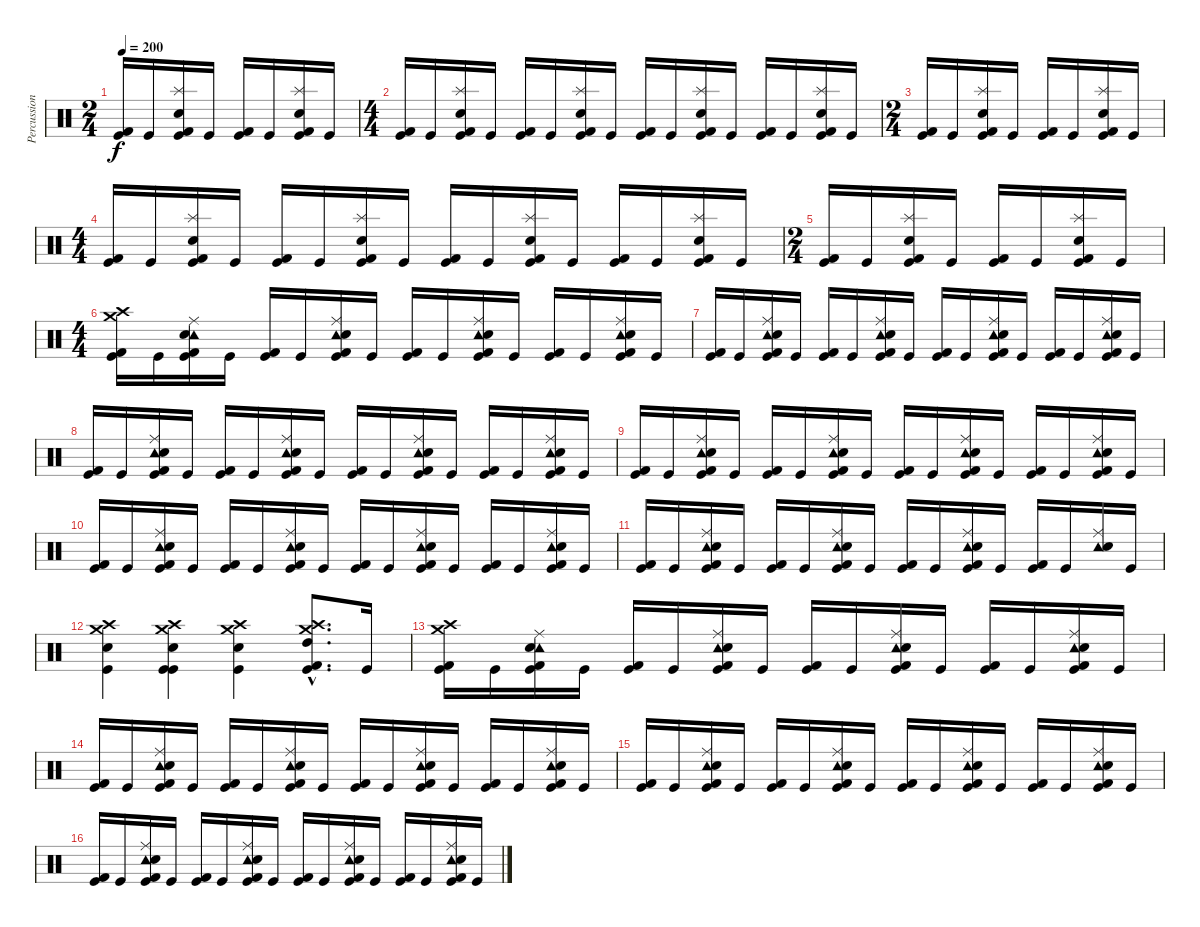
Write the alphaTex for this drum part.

\track ("Percussion" "Percussion") {instrument percussion}
\staff {score}
\articulation defaults
\ts (2 4)
\tempo 200
\clef neutral
\ks c
("Kick (hit) 2" "Kick (hit)").16{dy f} "Kick (hit)".16 ("Splash (hit)" "Snare (hit) 2" "Kick (hit) 2" "Kick (hit)").16 "Kick (hit)".16 ("Kick (hit) 2" "Kick (hit)").16 "Kick (hit)".16 ("Splash (hit)" "Snare (hit) 2" "Kick (hit) 2" "Kick (hit)").16 "Kick (hit)".16 |
\ts (4 4)
("Kick (hit) 2" "Kick (hit)").16 "Kick (hit)".16 ("Splash (hit)" "Snare (hit) 2" "Kick (hit) 2" "Kick (hit)").16 "Kick (hit)".16 ("Kick (hit) 2" "Kick (hit)").16 "Kick (hit)".16 ("Splash (hit)" "Snare (hit) 2" "Kick (hit) 2" "Kick (hit)").16 "Kick (hit)".16 ("Kick (hit) 2" "Kick (hit)").16 "Kick (hit)".16 ("Splash (hit)" "Snare (hit) 2" "Kick (hit) 2" "Kick (hit)").16 "Kick (hit)".16 ("Kick (hit) 2" "Kick (hit)").16 "Kick (hit)".16 ("Splash (hit)" "Snare (hit) 2" "Kick (hit) 2" "Kick (hit)").16 "Kick (hit)".16 |
\ts (2 4)
("Kick (hit) 2" "Kick (hit)").16 "Kick (hit)".16 ("Splash (hit)" "Snare (hit) 2" "Kick (hit) 2" "Kick (hit)").16 "Kick (hit)".16 ("Kick (hit) 2" "Kick (hit)").16 "Kick (hit)".16 ("Splash (hit)" "Snare (hit) 2" "Kick (hit) 2" "Kick (hit)").16 "Kick (hit)".16 |
\ts (4 4)
("Kick (hit) 2" "Kick (hit)").16 "Kick (hit)".16 ("Splash (hit)" "Snare (hit) 2" "Kick (hit) 2" "Kick (hit)").16 "Kick (hit)".16 ("Kick (hit) 2" "Kick (hit)").16 "Kick (hit)".16 ("Splash (hit)" "Snare (hit) 2" "Kick (hit) 2" "Kick (hit)").16 "Kick (hit)".16 ("Kick (hit) 2" "Kick (hit)").16 "Kick (hit)".16 ("Splash (hit)" "Snare (hit) 2" "Kick (hit) 2" "Kick (hit)").16 "Kick (hit)".16 ("Kick (hit) 2" "Kick (hit)").16 "Kick (hit)".16 ("Splash (hit)" "Snare (hit) 2" "Kick (hit) 2" "Kick (hit)").16 "Kick (hit)".16 |
\ts (2 4)
("Kick (hit) 2" "Kick (hit)").16 "Kick (hit)".16 ("Splash (hit)" "Snare (hit) 2" "Kick (hit) 2" "Kick (hit)").16 "Kick (hit)".16 ("Kick (hit) 2" "Kick (hit)").16 "Kick (hit)".16 ("Splash (hit)" "Snare (hit) 2" "Kick (hit) 2" "Kick (hit)").16 "Kick (hit)".16 |
\ts (4 4)
("Crash high (hit)" "Crash medium (hit)" "Kick (hit) 2" "Kick (hit)").16 "Kick (hit)".16 ("Ride (middle)" "Tambourine (hit)" "Snare (hit) 2" "Kick (hit) 2" "Kick (hit)").16 "Kick (hit)".16 ("Kick (hit) 2" "Kick (hit)").16 "Kick (hit)".16 ("Ride (middle)" "Tambourine (hit)" "Snare (hit) 2" "Kick (hit) 2" "Kick (hit)").16 "Kick (hit)".16 ("Kick (hit) 2" "Kick (hit)").16 "Kick (hit)".16 ("Ride (middle)" "Tambourine (hit)" "Snare (hit) 2" "Kick (hit) 2" "Kick (hit)").16 "Kick (hit)".16 ("Kick (hit) 2" "Kick (hit)").16 "Kick (hit)".16 ("Ride (middle)" "Tambourine (hit)" "Snare (hit) 2" "Kick (hit) 2" "Kick (hit)").16 "Kick (hit)".16 |
("Kick (hit) 2" "Kick (hit)").16 "Kick (hit)".16 ("Ride (middle)" "Tambourine (hit)" "Snare (hit) 2" "Kick (hit) 2" "Kick (hit)").16 "Kick (hit)".16 ("Kick (hit) 2" "Kick (hit)").16 "Kick (hit)".16 ("Ride (middle)" "Tambourine (hit)" "Snare (hit) 2" "Kick (hit) 2" "Kick (hit)").16 "Kick (hit)".16 ("Kick (hit) 2" "Kick (hit)").16 "Kick (hit)".16 ("Ride (middle)" "Tambourine (hit)" "Snare (hit) 2" "Kick (hit) 2" "Kick (hit)").16 "Kick (hit)".16 ("Kick (hit) 2" "Kick (hit)").16 "Kick (hit)".16 ("Ride (middle)" "Tambourine (hit)" "Snare (hit) 2" "Kick (hit) 2" "Kick (hit)").16 "Kick (hit)".16 |
("Kick (hit) 2" "Kick (hit)").16 "Kick (hit)".16 ("Ride (middle)" "Tambourine (hit)" "Snare (hit) 2" "Kick (hit) 2" "Kick (hit)").16 "Kick (hit)".16 ("Kick (hit) 2" "Kick (hit)").16 "Kick (hit)".16 ("Ride (middle)" "Tambourine (hit)" "Snare (hit) 2" "Kick (hit) 2" "Kick (hit)").16 "Kick (hit)".16 ("Kick (hit) 2" "Kick (hit)").16 "Kick (hit)".16 ("Ride (middle)" "Tambourine (hit)" "Snare (hit) 2" "Kick (hit) 2" "Kick (hit)").16 "Kick (hit)".16 ("Kick (hit) 2" "Kick (hit)").16 "Kick (hit)".16 ("Ride (middle)" "Tambourine (hit)" "Snare (hit) 2" "Kick (hit) 2" "Kick (hit)").16 "Kick (hit)".16 |
("Kick (hit) 2" "Kick (hit)").16 "Kick (hit)".16 ("Ride (middle)" "Tambourine (hit)" "Snare (hit) 2" "Kick (hit) 2" "Kick (hit)").16 "Kick (hit)".16 ("Kick (hit) 2" "Kick (hit)").16 "Kick (hit)".16 ("Ride (middle)" "Tambourine (hit)" "Snare (hit) 2" "Kick (hit) 2" "Kick (hit)").16 "Kick (hit)".16 ("Kick (hit) 2" "Kick (hit)").16 "Kick (hit)".16 ("Ride (middle)" "Tambourine (hit)" "Snare (hit) 2" "Kick (hit) 2" "Kick (hit)").16 "Kick (hit)".16 ("Kick (hit) 2" "Kick (hit)").16 "Kick (hit)".16 ("Ride (middle)" "Tambourine (hit)" "Snare (hit) 2" "Kick (hit) 2" "Kick (hit)").16 "Kick (hit)".16 |
("Kick (hit) 2" "Kick (hit)").16 "Kick (hit)".16 ("Ride (middle)" "Tambourine (hit)" "Snare (hit) 2" "Kick (hit) 2" "Kick (hit)").16 "Kick (hit)".16 ("Kick (hit) 2" "Kick (hit)").16 "Kick (hit)".16 ("Ride (middle)" "Tambourine (hit)" "Snare (hit) 2" "Kick (hit) 2" "Kick (hit)").16 "Kick (hit)".16 ("Kick (hit) 2" "Kick (hit)").16 "Kick (hit)".16 ("Ride (middle)" "Tambourine (hit)" "Snare (hit) 2" "Kick (hit) 2" "Kick (hit)").16 "Kick (hit)".16 ("Kick (hit) 2" "Kick (hit)").16 "Kick (hit)".16 ("Ride (middle)" "Tambourine (hit)" "Snare (hit) 2" "Kick (hit) 2" "Kick (hit)").16 "Kick (hit)".16 |
("Kick (hit) 2" "Kick (hit)").16 "Kick (hit)".16 ("Ride (middle)" "Tambourine (hit)" "Snare (hit) 2" "Kick (hit) 2" "Kick (hit)").16 "Kick (hit)".16 ("Kick (hit) 2" "Kick (hit)").16 "Kick (hit)".16 ("Ride (middle)" "Tambourine (hit)" "Snare (hit) 2" "Kick (hit) 2" "Kick (hit)").16 "Kick (hit)".16 ("Kick (hit) 2" "Kick (hit)").16 "Kick (hit)".16 ("Ride (middle)" "Tambourine (hit)" "Snare (hit) 2" "Kick (hit) 2" "Kick (hit)").16 "Kick (hit)".16 ("Kick (hit) 2" "Kick (hit)").16 "Kick (hit)".16 ("Ride (middle)" "Tambourine (hit)" "Snare (hit) 2").16 "Kick (hit)".16 |
("Crash high (hit)" "Crash medium (hit)" "Snare (hit) 2" "Kick (hit)").4 ("Crash high (hit)" "Crash medium (hit)" "Snare (hit) 2" "Kick (hit)" "Kick (hit)").4 ("Crash high (hit)" "Crash medium (hit)" "Snare (hit) 2" "Kick (hit)").4 ("Crash high (hit)"{hac} "Crash medium (hit)"{hac} "High Tom (hit)"{hac} "Kick (hit) 2"{hac} "Kick (hit)"{hac}).8{d} "Kick (hit)".16 |
("Crash high (hit)" "Crash medium (hit)" "Kick (hit) 2" "Kick (hit)").16 "Kick (hit)".16 ("Ride (middle)" "Tambourine (hit)" "Snare (hit) 2" "Kick (hit) 2" "Kick (hit)").16 "Kick (hit)".16 ("Kick (hit) 2" "Kick (hit)").16 "Kick (hit)".16 ("Ride (middle)" "Tambourine (hit)" "Snare (hit) 2" "Kick (hit) 2" "Kick (hit)").16 "Kick (hit)".16 ("Kick (hit) 2" "Kick (hit)").16 "Kick (hit)".16 ("Ride (middle)" "Tambourine (hit)" "Snare (hit) 2" "Kick (hit) 2" "Kick (hit)").16 "Kick (hit)".16 ("Kick (hit) 2" "Kick (hit)").16 "Kick (hit)".16 ("Ride (middle)" "Tambourine (hit)" "Snare (hit) 2" "Kick (hit) 2" "Kick (hit)").16 "Kick (hit)".16 |
("Kick (hit) 2" "Kick (hit)").16 "Kick (hit)".16 ("Ride (middle)" "Tambourine (hit)" "Snare (hit) 2" "Kick (hit) 2" "Kick (hit)").16 "Kick (hit)".16 ("Kick (hit) 2" "Kick (hit)").16 "Kick (hit)".16 ("Ride (middle)" "Tambourine (hit)" "Snare (hit) 2" "Kick (hit) 2" "Kick (hit)").16 "Kick (hit)".16 ("Kick (hit) 2" "Kick (hit)").16 "Kick (hit)".16 ("Ride (middle)" "Tambourine (hit)" "Snare (hit) 2" "Kick (hit) 2" "Kick (hit)").16 "Kick (hit)".16 ("Kick (hit) 2" "Kick (hit)").16 "Kick (hit)".16 ("Ride (middle)" "Tambourine (hit)" "Snare (hit) 2" "Kick (hit) 2" "Kick (hit)").16 "Kick (hit)".16 |
("Kick (hit) 2" "Kick (hit)").16 "Kick (hit)".16 ("Ride (middle)" "Tambourine (hit)" "Snare (hit) 2" "Kick (hit) 2" "Kick (hit)").16 "Kick (hit)".16 ("Kick (hit) 2" "Kick (hit)").16 "Kick (hit)".16 ("Ride (middle)" "Tambourine (hit)" "Snare (hit) 2" "Kick (hit) 2" "Kick (hit)").16 "Kick (hit)".16 ("Kick (hit) 2" "Kick (hit)").16 "Kick (hit)".16 ("Ride (middle)" "Tambourine (hit)" "Snare (hit) 2" "Kick (hit) 2" "Kick (hit)").16 "Kick (hit)".16 ("Kick (hit) 2" "Kick (hit)").16 "Kick (hit)".16 ("Ride (middle)" "Tambourine (hit)" "Snare (hit) 2" "Kick (hit) 2" "Kick (hit)").16 "Kick (hit)".16 |
("Kick (hit) 2" "Kick (hit)").16 "Kick (hit)".16 ("Ride (middle)" "Tambourine (hit)" "Snare (hit) 2" "Kick (hit) 2" "Kick (hit)").16 "Kick (hit)".16 ("Kick (hit) 2" "Kick (hit)").16 "Kick (hit)".16 ("Ride (middle)" "Tambourine (hit)" "Snare (hit) 2" "Kick (hit) 2" "Kick (hit)").16 "Kick (hit)".16 ("Kick (hit) 2" "Kick (hit)").16 "Kick (hit)".16 ("Ride (middle)" "Tambourine (hit)" "Snare (hit) 2" "Kick (hit) 2" "Kick (hit)").16 "Kick (hit)".16 ("Kick (hit) 2" "Kick (hit)").16 "Kick (hit)".16 ("Ride (middle)" "Tambourine (hit)" "Snare (hit) 2" "Kick (hit) 2" "Kick (hit)").16 "Kick (hit)".16
